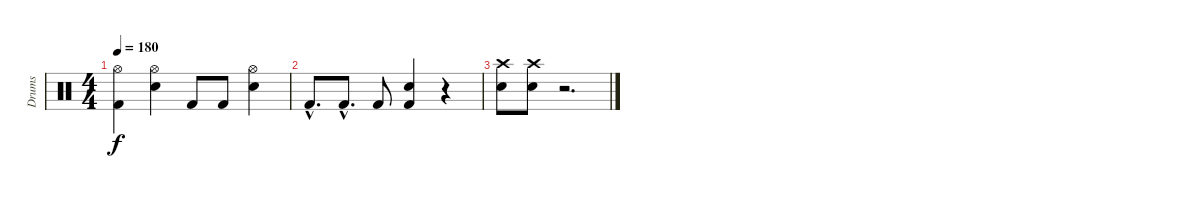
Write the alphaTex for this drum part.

\track ("Drums" "Drums") {instrument percussion}
\staff {score}
\articulation defaults
\ts (4 4)
\tempo 180
\clef neutral
\ks c
("Hi-Hat (open)" "Kick (hit) 2").4{dy f} ("Hi-Hat (open)" "Snare (hit) 2").4 "Kick (hit) 2".8 "Kick (hit) 2".8 ("Hi-Hat (open)" "Snare (hit) 2").4 |
"Kick (hit) 2"{hac}.8{d} "Kick (hit) 2"{hac}.8{d} "Kick (hit) 2".8 ("Kick (hit) 2" "Snare (hit) 2").4 r.4 |
("Snare (hit) 2" "Crash high (hit)").8 ("Snare (hit) 2" "Crash high (hit)").8 r.2{d}
